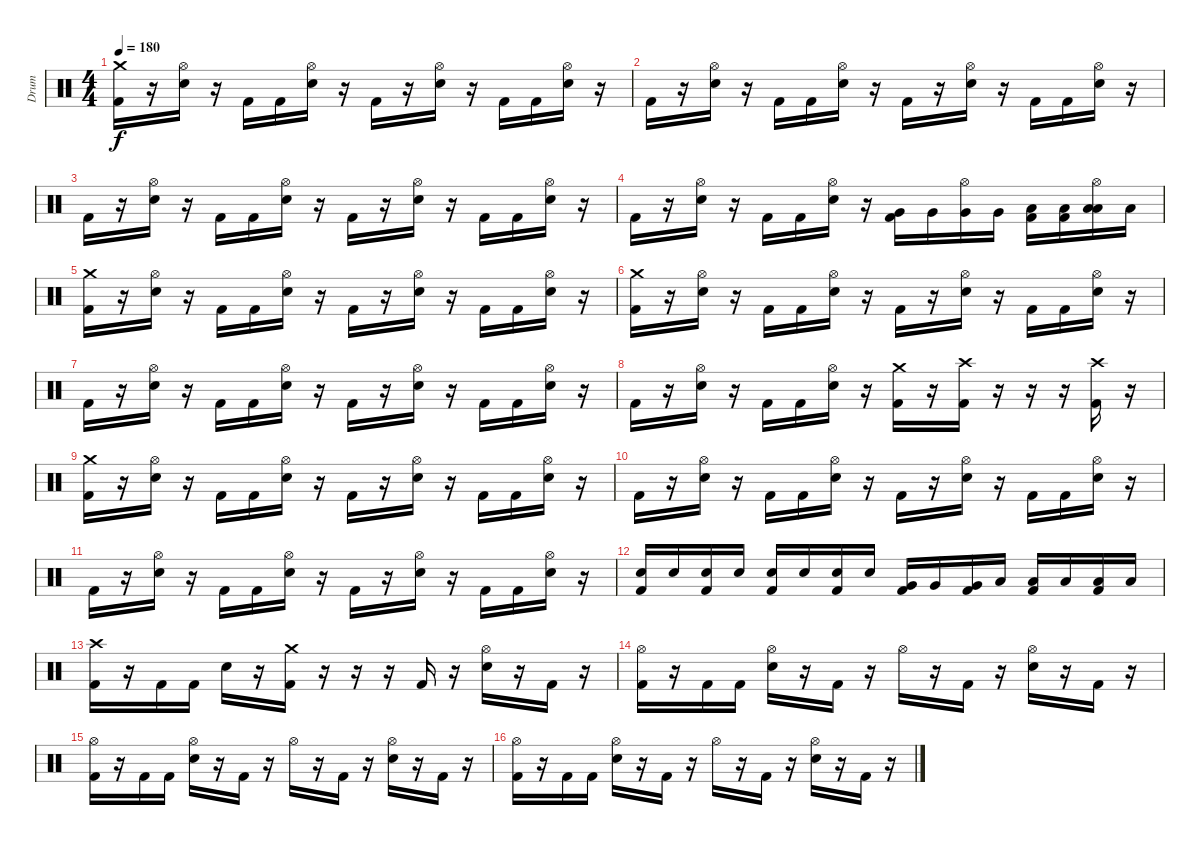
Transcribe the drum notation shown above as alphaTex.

\track ("Drum" "Drum") {instrument percussion}
\staff {score}
\articulation defaults
\ts (4 4)
\tempo 180
\clef neutral
\ks c
("Crash medium (hit)" "Kick (hit) 2").16{dy f} r.16 ("Hi-Hat (open)" "Electric Snare (hit)").16 r.16 "Kick (hit) 2".16 "Kick (hit) 2".16 ("Hi-Hat (open)" "Electric Snare (hit)").16 r.16 "Kick (hit) 2".16 r.16 ("Hi-Hat (open)" "Electric Snare (hit)").16 r.16 "Kick (hit) 2".16 "Kick (hit) 2".16 ("Hi-Hat (open)" "Electric Snare (hit)").16 r.16 |
"Kick (hit) 2".16 r.16 ("Hi-Hat (open)" "Electric Snare (hit)").16 r.16 "Kick (hit) 2".16 "Kick (hit) 2".16 ("Hi-Hat (open)" "Electric Snare (hit)").16 r.16 "Kick (hit) 2".16 r.16 ("Hi-Hat (open)" "Electric Snare (hit)").16 r.16 "Kick (hit) 2".16 "Kick (hit) 2".16 ("Hi-Hat (open)" "Electric Snare (hit)").16 r.16 |
"Kick (hit) 2".16 r.16 ("Hi-Hat (open)" "Electric Snare (hit)").16 r.16 "Kick (hit) 2".16 "Kick (hit) 2".16 ("Hi-Hat (open)" "Electric Snare (hit)").16 r.16 "Kick (hit) 2".16 r.16 ("Hi-Hat (open)" "Electric Snare (hit)").16 r.16 "Kick (hit) 2".16 "Kick (hit) 2".16 ("Hi-Hat (open)" "Electric Snare (hit)").16 r.16 |
"Kick (hit) 2".16 r.16 ("Hi-Hat (open)" "Electric Snare (hit)").16 r.16 "Kick (hit) 2".16 "Kick (hit) 2".16 ("Hi-Hat (open)" "Electric Snare (hit)").16 r.16 ("Very Low Tom (hit)" "Kick (hit) 2").16 "Very Low Tom (hit)".16 ("Hi-Hat (open)" "Very Low Tom (hit)").16 "Very Low Tom (hit)".16 ("Low Floor Tom (hit)" "Kick (hit) 2").16 ("Low Floor Tom (hit)" "Kick (hit) 2").16 ("Hi-Hat (open)" "Low Floor Tom (hit)" "Low Floor Tom (hit)").16 "Low Floor Tom (hit)".16 |
("Crash medium (hit)" "Kick (hit) 2").16 r.16 ("Hi-Hat (open)" "Electric Snare (hit)").16 r.16 "Kick (hit) 2".16 "Kick (hit) 2".16 ("Hi-Hat (open)" "Electric Snare (hit)").16 r.16 "Kick (hit) 2".16 r.16 ("Hi-Hat (open)" "Electric Snare (hit)").16 r.16 "Kick (hit) 2".16 "Kick (hit) 2".16 ("Hi-Hat (open)" "Electric Snare (hit)").16 r.16 |
("Crash medium (hit)" "Kick (hit) 2").16 r.16 ("Hi-Hat (open)" "Electric Snare (hit)").16 r.16 "Kick (hit) 2".16 "Kick (hit) 2".16 ("Hi-Hat (open)" "Electric Snare (hit)").16 r.16 "Kick (hit) 2".16 r.16 ("Hi-Hat (open)" "Electric Snare (hit)").16 r.16 "Kick (hit) 2".16 "Kick (hit) 2".16 ("Hi-Hat (open)" "Electric Snare (hit)").16 r.16 |
"Kick (hit) 2".16 r.16 ("Hi-Hat (open)" "Electric Snare (hit)").16 r.16 "Kick (hit) 2".16 "Kick (hit) 2".16 ("Hi-Hat (open)" "Electric Snare (hit)").16 r.16 "Kick (hit) 2".16 r.16 ("Hi-Hat (open)" "Electric Snare (hit)").16 r.16 "Kick (hit) 2".16 "Kick (hit) 2".16 ("Hi-Hat (open)" "Electric Snare (hit)").16 r.16 |
"Kick (hit) 2".16 r.16 ("Hi-Hat (open)" "Electric Snare (hit)").16 r.16 "Kick (hit) 2".16 "Kick (hit) 2".16 ("Hi-Hat (open)" "Electric Snare (hit)").16 r.16 ("Crash medium (hit)" "Kick (hit) 2").16 r.16 ("Crash high (hit)" "Kick (hit) 2").16 r.16 r.16 r.16 ("Crash high (hit)" "Kick (hit) 2").16 r.16 |
("Crash medium (hit)" "Kick (hit) 2").16 r.16 ("Hi-Hat (open)" "Electric Snare (hit)").16 r.16 "Kick (hit) 2".16 "Kick (hit) 2".16 ("Hi-Hat (open)" "Electric Snare (hit)").16 r.16 "Kick (hit) 2".16 r.16 ("Hi-Hat (open)" "Electric Snare (hit)").16 r.16 "Kick (hit) 2".16 "Kick (hit) 2".16 ("Hi-Hat (open)" "Electric Snare (hit)").16 r.16 |
"Kick (hit) 2".16 r.16 ("Hi-Hat (open)" "Electric Snare (hit)").16 r.16 "Kick (hit) 2".16 "Kick (hit) 2".16 ("Hi-Hat (open)" "Electric Snare (hit)").16 r.16 "Kick (hit) 2".16 r.16 ("Hi-Hat (open)" "Electric Snare (hit)").16 r.16 "Kick (hit) 2".16 "Kick (hit) 2".16 ("Hi-Hat (open)" "Electric Snare (hit)").16 r.16 |
"Kick (hit) 2".16 r.16 ("Hi-Hat (open)" "Electric Snare (hit)").16 r.16 "Kick (hit) 2".16 "Kick (hit) 2".16 ("Hi-Hat (open)" "Electric Snare (hit)").16 r.16 "Kick (hit) 2".16 r.16 ("Hi-Hat (open)" "Electric Snare (hit)").16 r.16 "Kick (hit) 2".16 "Kick (hit) 2".16 ("Hi-Hat (open)" "Electric Snare (hit)").16 r.16 |
("Electric Snare (hit)" "Kick (hit) 2").16 "Electric Snare (hit)".16 ("Electric Snare (hit)" "Kick (hit) 2").16 "Electric Snare (hit)".16 ("Electric Snare (hit)" "Kick (hit) 2").16 "Electric Snare (hit)".16 ("Electric Snare (hit)" "Kick (hit) 2").16 "Electric Snare (hit)".16 ("Very Low Tom (hit)" "Kick (hit) 2").16 "Very Low Tom (hit)".16 ("Very Low Tom (hit)" "Kick (hit) 2").16 "Low Floor Tom (hit)".16 ("Low Floor Tom (hit)" "Kick (hit) 2").16 "Low Floor Tom (hit)".16 ("Low Floor Tom (hit)" "Kick (hit) 2").16 "Low Floor Tom (hit)".16 |
("Crash high (hit)" "Kick (hit) 2").16 r.16 "Kick (hit) 2".16 "Kick (hit) 2".16 "Electric Snare (hit)".16 r.16 ("Crash medium (hit)" "Kick (hit) 2").16 r.16 r.16 r.16 "Kick (hit) 2".16 r.16 ("Hi-Hat (open)" "Electric Snare (hit)").16 r.16 "Kick (hit) 2".16 r.16 |
("Hi-Hat (open)" "Kick (hit) 2").16 r.16 "Kick (hit) 2".16 "Kick (hit) 2".16 ("Hi-Hat (open)" "Electric Snare (hit)").16 r.16 "Kick (hit) 2".16 r.16 "Hi-Hat (open)".16 r.16 "Kick (hit) 2".16 r.16 ("Hi-Hat (open)" "Electric Snare (hit)").16 r.16 "Kick (hit) 2".16 r.16 |
("Hi-Hat (open)" "Kick (hit) 2").16 r.16 "Kick (hit) 2".16 "Kick (hit) 2".16 ("Hi-Hat (open)" "Electric Snare (hit)").16 r.16 "Kick (hit) 2".16 r.16 "Hi-Hat (open)".16 r.16 "Kick (hit) 2".16 r.16 ("Hi-Hat (open)" "Electric Snare (hit)").16 r.16 "Kick (hit) 2".16 r.16 |
("Hi-Hat (open)" "Kick (hit) 2").16 r.16 "Kick (hit) 2".16 "Kick (hit) 2".16 ("Hi-Hat (open)" "Electric Snare (hit)").16 r.16 "Kick (hit) 2".16 r.16 "Hi-Hat (open)".16 r.16 "Kick (hit) 2".16 r.16 ("Hi-Hat (open)" "Electric Snare (hit)").16 r.16 "Kick (hit) 2".16 r.16
